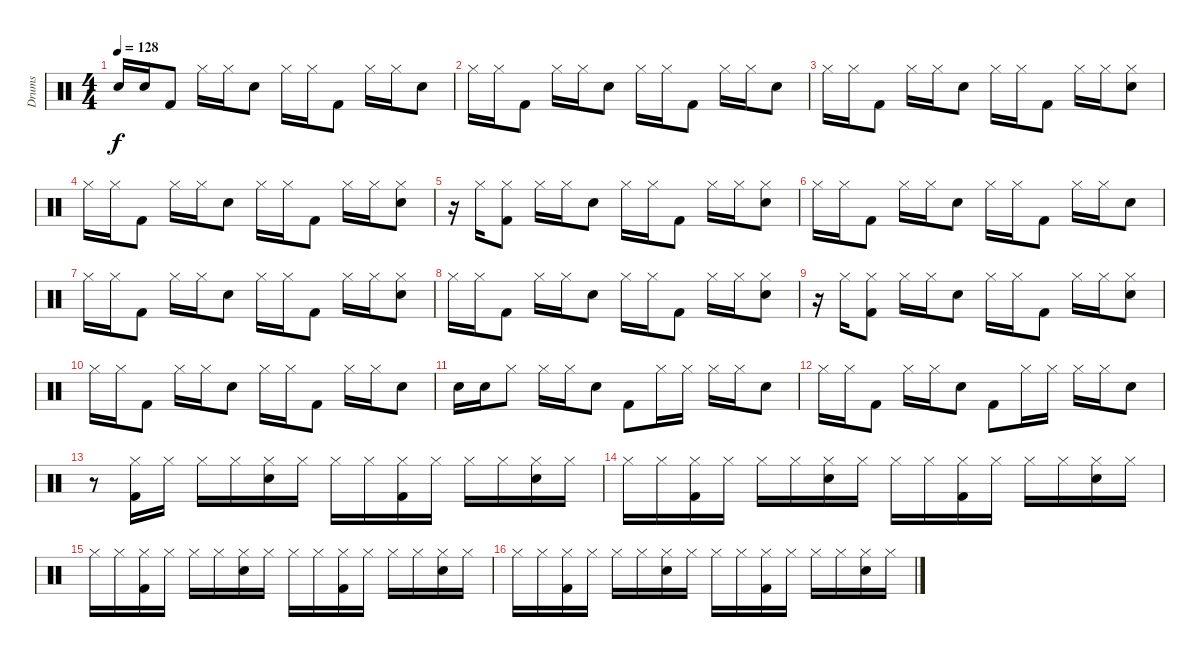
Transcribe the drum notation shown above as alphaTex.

\track ("Drums" "Drums") {instrument percussion}
\staff {score}
\articulation defaults
\ts (4 4)
\tempo 128
\clef neutral
\ks c "Snare (hit) 2".16{dy f} "Snare (hit) 2".16 "Kick (hit) 2".8 "Hi-Hat (closed)".16 "Hi-Hat (closed)".16 "Snare (hit) 2".8 "Hi-Hat (closed)".16 "Hi-Hat (closed)".16 "Kick (hit) 2".8 "Hi-Hat (closed)".16 "Hi-Hat (closed)".16 "Snare (hit) 2".8
|
"Hi-Hat (closed)".16 "Hi-Hat (closed)".16 "Kick (hit) 2".8 "Hi-Hat (closed)".16 "Hi-Hat (closed)".16 "Snare (hit) 2".8 "Hi-Hat (closed)".16 "Hi-Hat (closed)".16 "Kick (hit) 2".8 "Hi-Hat (closed)".16 "Hi-Hat (closed)".16 "Snare (hit) 2".8 |
"Hi-Hat (closed)".16 "Hi-Hat (closed)".16 "Kick (hit) 2".8 "Hi-Hat (closed)".16 "Hi-Hat (closed)".16 "Snare (hit) 2".8 "Hi-Hat (closed)".16 "Hi-Hat (closed)".16 "Kick (hit) 2".8 "Hi-Hat (closed)".16 "Hi-Hat (closed)".16 ("Hi-Hat (closed)" "Snare (hit) 2").8 |
"Hi-Hat (closed)".16 "Hi-Hat (closed)".16 "Kick (hit) 2".8 "Hi-Hat (closed)".16 "Hi-Hat (closed)".16 "Snare (hit) 2".8 "Hi-Hat (closed)".16 "Hi-Hat (closed)".16 "Kick (hit) 2".8 "Hi-Hat (closed)".16 "Hi-Hat (closed)".16 ("Hi-Hat (closed)" "Snare (hit) 2").8 |
r.16 "Hi-Hat (closed)".16 ("Hi-Hat (closed)" "Kick (hit) 2").8 "Hi-Hat (closed)".16 "Hi-Hat (closed)".16 "Snare (hit) 2".8 "Hi-Hat (closed)".16 "Hi-Hat (closed)".16 "Kick (hit) 2".8 "Hi-Hat (closed)".16 "Hi-Hat (closed)".16 ("Hi-Hat (closed)" "Snare (hit) 2").8 |
"Hi-Hat (closed)".16 "Hi-Hat (closed)".16 "Kick (hit) 2".8 "Hi-Hat (closed)".16 "Hi-Hat (closed)".16 "Snare (hit) 2".8 "Hi-Hat (closed)".16 "Hi-Hat (closed)".16 "Kick (hit) 2".8 "Hi-Hat (closed)".16 "Hi-Hat (closed)".16 "Snare (hit) 2".8 |
"Hi-Hat (closed)".16 "Hi-Hat (closed)".16 "Kick (hit) 2".8 "Hi-Hat (closed)".16 "Hi-Hat (closed)".16 "Snare (hit) 2".8 "Hi-Hat (closed)".16 "Hi-Hat (closed)".16 "Kick (hit) 2".8 "Hi-Hat (closed)".16 "Hi-Hat (closed)".16 ("Hi-Hat (closed)" "Snare (hit) 2").8 |
"Hi-Hat (closed)".16 "Hi-Hat (closed)".16 "Kick (hit) 2".8 "Hi-Hat (closed)".16 "Hi-Hat (closed)".16 "Snare (hit) 2".8 "Hi-Hat (closed)".16 "Hi-Hat (closed)".16 "Kick (hit) 2".8 "Hi-Hat (closed)".16 "Hi-Hat (closed)".16 ("Hi-Hat (closed)" "Snare (hit) 2").8 |
r.16 "Hi-Hat (closed)".16 ("Hi-Hat (closed)" "Kick (hit) 2").8 "Hi-Hat (closed)".16 "Hi-Hat (closed)".16 "Snare (hit) 2".8 "Hi-Hat (closed)".16 "Hi-Hat (closed)".16 "Kick (hit) 2".8 "Hi-Hat (closed)".16 "Hi-Hat (closed)".16 ("Hi-Hat (closed)" "Snare (hit) 2").8 |
"Hi-Hat (closed)".16 "Hi-Hat (closed)".16 "Kick (hit) 2".8 "Hi-Hat (closed)".16 "Hi-Hat (closed)".16 "Snare (hit) 2".8 "Hi-Hat (closed)".16 "Hi-Hat (closed)".16 "Kick (hit) 2".8 "Hi-Hat (closed)".16 "Hi-Hat (closed)".16 "Snare (hit) 2".8 |
"Snare (hit) 2".16 "Snare (hit) 2".16 "Hi-Hat (closed)".8 "Hi-Hat (closed)".16 "Hi-Hat (closed)".16 "Snare (hit) 2".8 "Kick (hit) 2".8 "Hi-Hat (closed)".16 "Hi-Hat (closed)".16 "Hi-Hat (closed)".16 "Hi-Hat (closed)".16 "Snare (hit) 2".8 |
"Hi-Hat (closed)".16 "Hi-Hat (closed)".16 "Kick (hit) 2".8 "Hi-Hat (closed)".16 "Hi-Hat (closed)".16 "Snare (hit) 2".8 "Kick (hit) 2".8 "Hi-Hat (closed)".16 "Hi-Hat (closed)".16 "Hi-Hat (closed)".16 "Hi-Hat (closed)".16 "Snare (hit) 2".8 |
r.8 ("Hi-Hat (closed)" "Kick (hit) 2").16 "Hi-Hat (closed)".16 "Hi-Hat (closed)".16 "Hi-Hat (closed)".16 ("Hi-Hat (closed)" "Snare (hit) 2").16 "Hi-Hat (closed)".16 "Hi-Hat (closed)".16 "Hi-Hat (closed)".16 ("Hi-Hat (closed)" "Kick (hit) 2").16 "Hi-Hat (closed)".16 "Hi-Hat (closed)".16 "Hi-Hat (closed)".16 ("Hi-Hat (closed)" "Snare (hit) 2").16 "Hi-Hat (closed)".16 |
"Hi-Hat (closed)".16 "Hi-Hat (closed)".16 ("Hi-Hat (closed)" "Kick (hit) 2").16 "Hi-Hat (closed)".16 "Hi-Hat (closed)".16 "Hi-Hat (closed)".16 ("Hi-Hat (closed)" "Snare (hit) 2").16 "Hi-Hat (closed)".16 "Hi-Hat (closed)".16 "Hi-Hat (closed)".16 ("Hi-Hat (closed)" "Kick (hit) 2").16 "Hi-Hat (closed)".16 "Hi-Hat (closed)".16 "Hi-Hat (closed)".16 ("Hi-Hat (closed)" "Snare (hit) 2").16 "Hi-Hat (closed)".16 |
"Hi-Hat (closed)".16 "Hi-Hat (closed)".16 ("Hi-Hat (closed)" "Kick (hit) 2").16 "Hi-Hat (closed)".16 "Hi-Hat (closed)".16 "Hi-Hat (closed)".16 ("Hi-Hat (closed)" "Snare (hit) 2").16 "Hi-Hat (closed)".16 "Hi-Hat (closed)".16 "Hi-Hat (closed)".16 ("Hi-Hat (closed)" "Kick (hit) 2").16 "Hi-Hat (closed)".16 "Hi-Hat (closed)".16 "Hi-Hat (closed)".16 ("Hi-Hat (closed)" "Snare (hit) 2").16 "Hi-Hat (closed)".16 |
"Hi-Hat (closed)".16 "Hi-Hat (closed)".16 ("Hi-Hat (closed)" "Kick (hit) 2").16 "Hi-Hat (closed)".16 "Hi-Hat (closed)".16 "Hi-Hat (closed)".16 ("Hi-Hat (closed)" "Snare (hit) 2").16 "Hi-Hat (closed)".16 "Hi-Hat (closed)".16 "Hi-Hat (closed)".16 ("Hi-Hat (closed)" "Kick (hit) 2").16 "Hi-Hat (closed)".16 "Hi-Hat (closed)".16 "Hi-Hat (closed)".16 ("Hi-Hat (closed)" "Snare (hit) 2").16 "Hi-Hat (closed)".16
